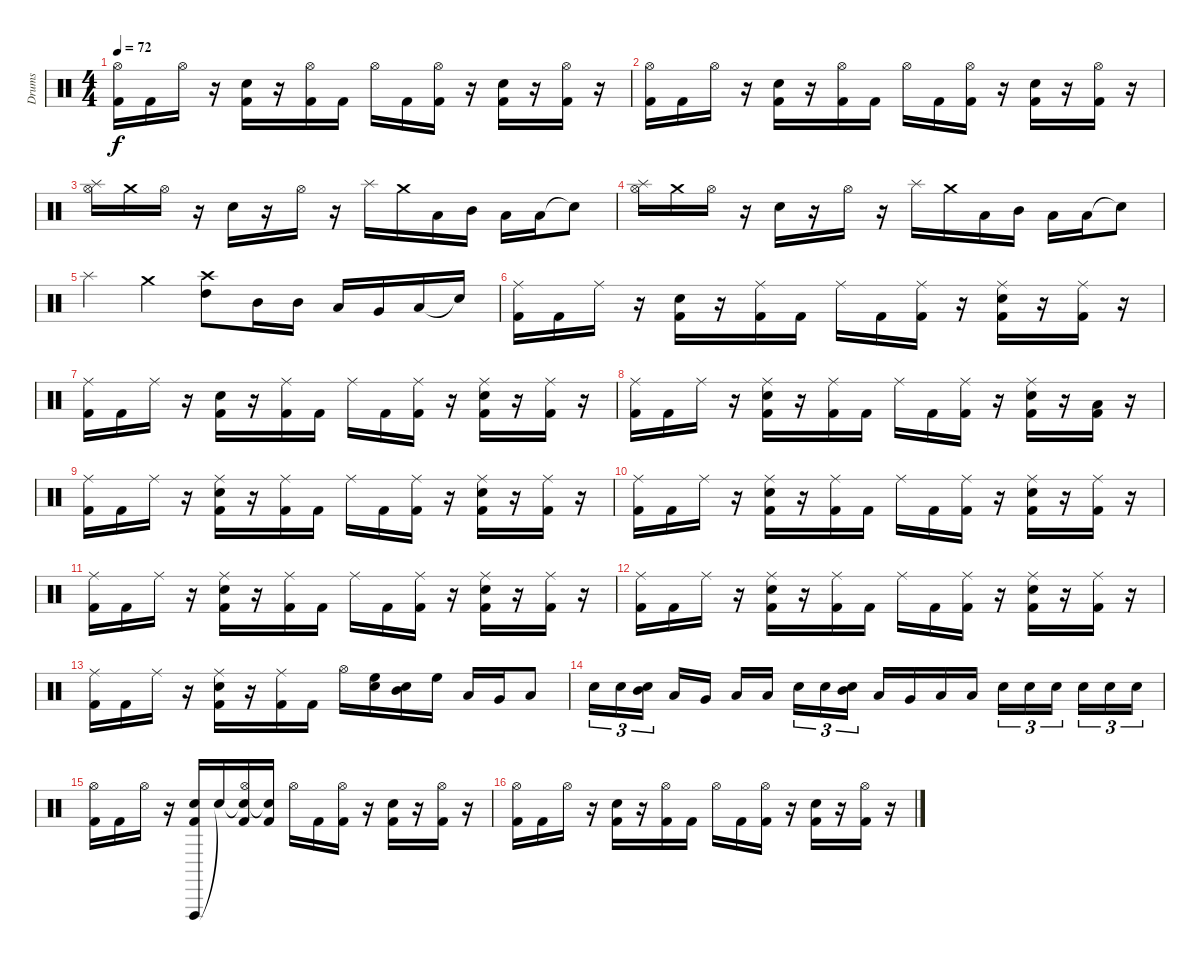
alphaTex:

\track ("Drums" "Drums") {instrument percussion}
\staff {score}
\articulation defaults
\ts (4 4)
\tempo 72
\clef neutral
\ks c
("Hi-Hat (open)" "Kick (hit) 2").16{dy f} "Kick (hit) 2".16 "Hi-Hat (open)".16 r.16 ("Snare (hit) 2" "Kick (hit) 2").16 r.16 ("Hi-Hat (open)" "Kick (hit) 2").16 "Kick (hit) 2".16 "Hi-Hat (open)".16 "Kick (hit) 2".16 ("Hi-Hat (open)" "Kick (hit) 2").16 r.16 ("Snare (hit) 2" "Kick (hit) 2").16 r.16 ("Hi-Hat (open)" "Kick (hit) 2").16 r.16 |
("Hi-Hat (open)" "Kick (hit) 2").16 "Kick (hit) 2".16 "Hi-Hat (open)".16 r.16 ("Snare (hit) 2" "Kick (hit) 2").16 r.16 ("Hi-Hat (open)" "Kick (hit) 2").16 "Kick (hit) 2".16 "Hi-Hat (open)".16 "Kick (hit) 2".16 ("Hi-Hat (open)" "Kick (hit) 2").16 r.16 ("Snare (hit) 2" "Kick (hit) 2").16 r.16 ("Hi-Hat (open)" "Kick (hit) 2").16 r.16 |
("Splash (hit)" "Hi-Hat (open)").16 "Crash medium (hit)".16 "Hi-Hat (open)".16 r.16 "Snare (hit) 2".16 r.16 "Hi-Hat (open)".16 r.16 "Splash (hit)".16 "Crash medium (hit)".16 "Low Tom (hit)".16 "Mid Tom (hit)".16 "Low Tom (hit)".16 "Low Tom (hit)".16 "Snare (hit)"{t}.8 |
("Splash (hit)" "Hi-Hat (open)").16 "Crash medium (hit)".16 "Hi-Hat (open)".16 r.16 "Snare (hit) 2".16 r.16 "Hi-Hat (open)".16 r.16 "Splash (hit)".16 "Crash medium (hit)".16 "Low Tom (hit)".16 "Mid Tom (hit)".16 "Low Tom (hit)".16 "Low Tom (hit)".16 "Snare (hit)"{t}.8 |
"Splash (hit)".4 "Crash medium (hit)".4 ("Crash high (hit)" "High Tom (hit)").8 "Mid Tom (hit)".16 "Mid Tom (hit)".16 "Low Tom (hit)".16 "Very Low Tom (hit)".16 "Low Floor Tom (hit)".16 "Snare (hit)"{t}.16 |
("Ride (middle)" "Kick (hit) 2").16 "Kick (hit) 2".16 "Ride (middle)".16 r.16 ("Snare (hit) 2" "Kick (hit) 2").16 r.16 ("Ride (middle)" "Kick (hit) 2").16 "Kick (hit) 2".16 "Ride (middle)".16 "Kick (hit) 2".16 ("Ride (middle)" "Kick (hit) 2").16 r.16 ("Ride (middle)" "Snare (hit) 2" "Kick (hit) 2").16 r.16 ("Ride (middle)" "Kick (hit) 2").16 r.16 |
("Ride (middle)" "Kick (hit) 2").16 "Kick (hit) 2".16 "Ride (middle)".16 r.16 ("Snare (hit) 2" "Kick (hit) 2").16 r.16 ("Ride (middle)" "Kick (hit) 2").16 "Kick (hit) 2".16 "Ride (middle)".16 "Kick (hit) 2".16 ("Ride (middle)" "Kick (hit) 2").16 r.16 ("Ride (middle)" "Snare (hit) 2" "Kick (hit) 2").16 r.16 ("Ride (middle)" "Kick (hit) 2").16 r.16 |
("Ride (middle)" "Kick (hit) 2").16 "Kick (hit) 2".16 "Ride (middle)".16 r.16 ("Ride (middle)" "Snare (hit) 2" "Kick (hit) 2").16 r.16 ("Ride (middle)" "Kick (hit) 2").16 "Kick (hit) 2".16 "Ride (middle)".16 "Kick (hit) 2".16 ("Ride (middle)" "Kick (hit) 2").16 r.16 ("Ride (middle)" "Snare (hit) 2" "Kick (hit) 2").16 r.16 ("Low Floor Tom (hit)" "Kick (hit) 2").16 r.16 |
("Ride (middle)" "Kick (hit) 2").16 "Kick (hit) 2".16 "Ride (middle)".16 r.16 ("Ride (middle)" "Snare (hit) 2" "Kick (hit) 2").16 r.16 ("Ride (middle)" "Kick (hit) 2").16 "Kick (hit) 2".16 "Ride (middle)".16 "Kick (hit) 2".16 ("Ride (middle)" "Kick (hit) 2").16 r.16 ("Ride (middle)" "Snare (hit) 2" "Kick (hit) 2").16 r.16 ("Ride (middle)" "Kick (hit) 2").16 r.16 |
("Ride (middle)" "Kick (hit) 2").16 "Kick (hit) 2".16 "Ride (middle)".16 r.16 ("Ride (middle)" "Snare (hit) 2" "Kick (hit) 2").16 r.16 ("Ride (middle)" "Kick (hit) 2").16 "Kick (hit) 2".16 "Ride (middle)".16 "Kick (hit) 2".16 ("Ride (middle)" "Kick (hit) 2").16 r.16 ("Ride (middle)" "Snare (hit) 2" "Kick (hit) 2").16 r.16 ("Ride (middle)" "Kick (hit) 2").16 r.16 |
("Ride (middle)" "Kick (hit) 2").16 "Kick (hit) 2".16 "Ride (middle)".16 r.16 ("Ride (middle)" "Snare (hit) 2" "Kick (hit) 2").16 r.16 ("Ride (middle)" "Kick (hit) 2").16 "Kick (hit) 2".16 "Ride (middle)".16 "Kick (hit) 2".16 ("Ride (middle)" "Kick (hit) 2").16 r.16 ("Ride (middle)" "Snare (hit) 2" "Kick (hit) 2").16 r.16 ("Ride (middle)" "Kick (hit) 2").16 r.16 |
("Ride (middle)" "Kick (hit) 2").16 "Kick (hit) 2".16 "Ride (middle)".16 r.16 ("Ride (middle)" "Snare (hit) 2" "Kick (hit) 2").16 r.16 ("Ride (middle)" "Kick (hit) 2").16 "Kick (hit) 2".16 "Ride (middle)".16 "Kick (hit) 2".16 ("Ride (middle)" "Kick (hit) 2").16 r.16 ("Ride (middle)" "Snare (hit) 2" "Kick (hit) 2").16 r.16 ("Ride (middle)" "Kick (hit) 2").16 r.16 |
("Ride (middle)" "Kick (hit) 2").16 "Kick (hit) 2".16 "Ride (middle)".16 r.16 ("Ride (middle)" "Snare (hit) 2" "Kick (hit) 2").16 r.16 ("Ride (middle)" "Kick (hit) 2").16 "Kick (hit) 2".16 "Hi-Hat (open)".16 ("Snare (hit) 2" "High Floor Tom (hit)").16 ("Snare (hit) 2" "Mid Tom (hit)").16 "High Floor Tom (hit)".16 "Low Tom (hit)".16 "Very Low Tom (hit)".16 "Low Floor Tom (hit)".8 |
"Snare (hit) 2".16{tu (3 2)} "Snare (hit) 2".16{tu (3 2)} ("Snare (hit) 2" "Mid Tom (hit)").16{tu (3 2) beam splitsecondary} "Low Tom (hit)".16 "Very Low Tom (hit)".16 "Low Floor Tom (hit)".16 "Low Tom (hit)".16{beam splitsecondary} "Snare (hit) 2".16{tu (3 2)} "Snare (hit) 2".16{tu (3 2)} ("Snare (hit) 2" "Mid Tom (hit)").16{tu (3 2)} "Low Tom (hit)".16 "Very Low Tom (hit)".16 "Low Floor Tom (hit)".16 "Low Tom (hit)".16 "Snare (hit) 2".16{tu (3 2)} "Snare (hit) 2".16{tu (3 2)} "Snare (hit) 2".16{tu (3 2) beam splitsecondary} "Snare (hit) 2".16{tu (3 2)} "Snare (hit) 2".16{tu (3 2)} "Snare (hit) 2".16{tu (3 2)} |
("Hi-Hat (open)" "Kick (hit) 2").16 "Kick (hit) 2".16 "Hi-Hat (open)".16 r.16 ("Vibraslap (hit)" "Snare (hit) 2" "Kick (hit) 2").16 "Snare (hit)"{t}.16 ("Snare (hit)"{t} "Hi-Hat (open)" "Kick (hit) 2").16 ("Snare (hit)"{t} "Kick (hit) 2").16 "Hi-Hat (open)".16 "Kick (hit) 2".16 ("Hi-Hat (open)" "Kick (hit) 2").16 r.16 ("Snare (hit) 2" "Kick (hit) 2").16 r.16 ("Hi-Hat (open)" "Kick (hit) 2").16 r.16 |
("Hi-Hat (open)" "Kick (hit) 2").16 "Kick (hit) 2".16 "Hi-Hat (open)".16 r.16 ("Snare (hit) 2" "Kick (hit) 2").16 r.16 ("Hi-Hat (open)" "Kick (hit) 2").16 "Kick (hit) 2".16 "Hi-Hat (open)".16 "Kick (hit) 2".16 ("Hi-Hat (open)" "Kick (hit) 2").16 r.16 ("Snare (hit) 2" "Kick (hit) 2").16 r.16 ("Hi-Hat (open)" "Kick (hit) 2").16 r.16
